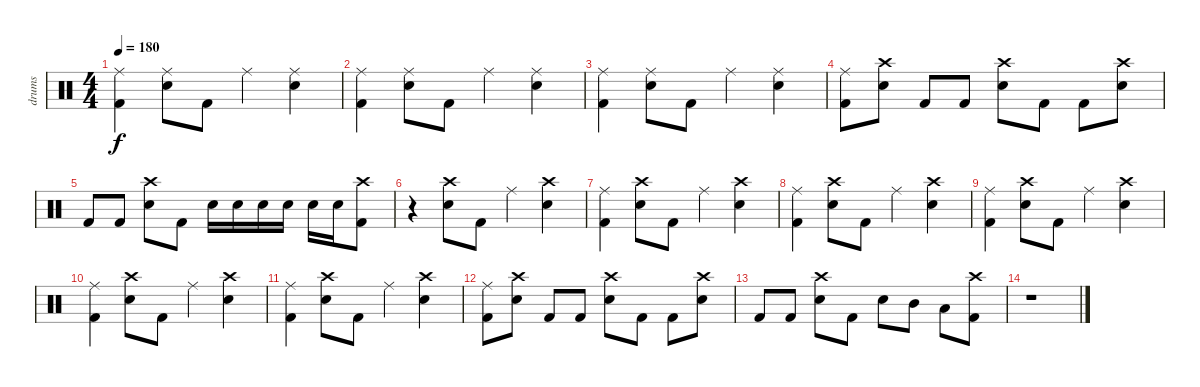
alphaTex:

\track ("drums" "drums") {instrument percussion}
\staff {score}
\articulation defaults
\ts (4 4)
\tempo 180
\clef neutral
\ks c
("Ride (middle)" "Kick (hit) 2").4{dy f} ("Ride (middle)" "Electric Snare (hit)").8 "Kick (hit) 2".8 "Ride (middle)".4 ("Ride (middle)" "Electric Snare (hit)").4 |
("Ride (middle)" "Kick (hit) 2").4 ("Ride (middle)" "Electric Snare (hit)").8 "Kick (hit) 2".8 "Ride (middle)".4 ("Ride (middle)" "Electric Snare (hit)").4 |
("Ride (middle)" "Kick (hit) 2").4 ("Ride (middle)" "Electric Snare (hit)").8 "Kick (hit) 2".8 "Ride (middle)".4 ("Ride (middle)" "Electric Snare (hit)").4 |
("Ride (middle)" "Kick (hit) 2").8 ("Crash high (hit)" "Electric Snare (hit)").8 "Kick (hit) 2".8 "Kick (hit) 2".8 ("Crash high (hit)" "Electric Snare (hit)").8 "Kick (hit) 2".8 "Kick (hit) 2".8 ("Crash high (hit)" "Electric Snare (hit)").8 |
"Kick (hit) 2".8 "Kick (hit) 2".8 ("Crash high (hit)" "Electric Snare (hit)").8 "Kick (hit) 2".8 "Electric Snare (hit)".16 "Electric Snare (hit)".16 "Electric Snare (hit)".16 "Electric Snare (hit)".16 "Electric Snare (hit)".16 "Electric Snare (hit)".16 ("Crash high (hit)" "Kick (hit) 2").8 |
r.4 ("Crash high (hit)" "Electric Snare (hit)").8 "Kick (hit) 2".8 "Ride (middle)".4 ("Crash high (hit)" "Electric Snare (hit)").4 |
("Ride (middle)" "Kick (hit) 2").4 ("Crash high (hit)" "Electric Snare (hit)").8 "Kick (hit) 2".8 "Ride (middle)".4 ("Crash high (hit)" "Electric Snare (hit)").4 |
("Ride (middle)" "Kick (hit) 2").4 ("Crash high (hit)" "Electric Snare (hit)").8 "Kick (hit) 2".8 "Ride (middle)".4 ("Crash high (hit)" "Electric Snare (hit)").4 |
("Ride (middle)" "Kick (hit) 2").4 ("Crash high (hit)" "Electric Snare (hit)").8 "Kick (hit) 2".8 "Ride (middle)".4 ("Crash high (hit)" "Electric Snare (hit)").4 |
("Ride (middle)" "Kick (hit) 2").4 ("Crash high (hit)" "Electric Snare (hit)").8 "Kick (hit) 2".8 "Ride (middle)".4 ("Crash high (hit)" "Electric Snare (hit)").4 |
("Ride (middle)" "Kick (hit) 2").4 ("Crash high (hit)" "Electric Snare (hit)").8 "Kick (hit) 2".8 "Ride (middle)".4 ("Crash high (hit)" "Electric Snare (hit)").4 |
("Ride (middle)" "Kick (hit) 2").8 ("Crash high (hit)" "Electric Snare (hit)").8 "Kick (hit) 2".8 "Kick (hit) 2".8 ("Crash high (hit)" "Electric Snare (hit)").8 "Kick (hit) 2".8 "Kick (hit) 2".8 ("Crash high (hit)" "Electric Snare (hit)").8 |
"Kick (hit) 2".8 "Kick (hit) 2".8 ("Crash high (hit)" "Electric Snare (hit)").8 "Kick (hit) 2".8 "Electric Snare (hit)".8 "Mid Tom (hit)".8 "Low Tom (hit)".8 ("Crash high (hit)" "Kick (hit) 2").8 |
r.1
